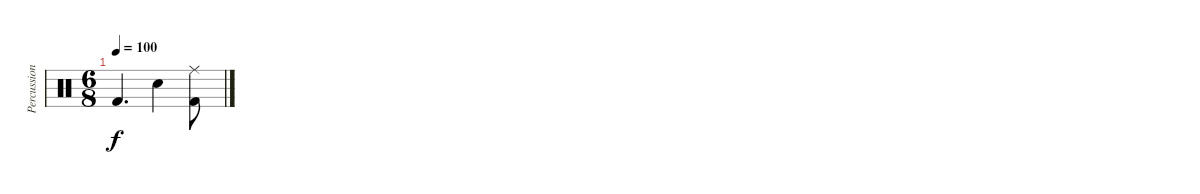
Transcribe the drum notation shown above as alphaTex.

\track ("Percussion" "Percussion") {instrument percussion}
\staff {score}
\articulation defaults
\ts (6 8)
\tempo 100
\clef neutral
\ks c "Kick (hit) 2".4{d dy f} "Snare (hit) 2".4
("Ride (middle)" "Kick (hit) 2").8
